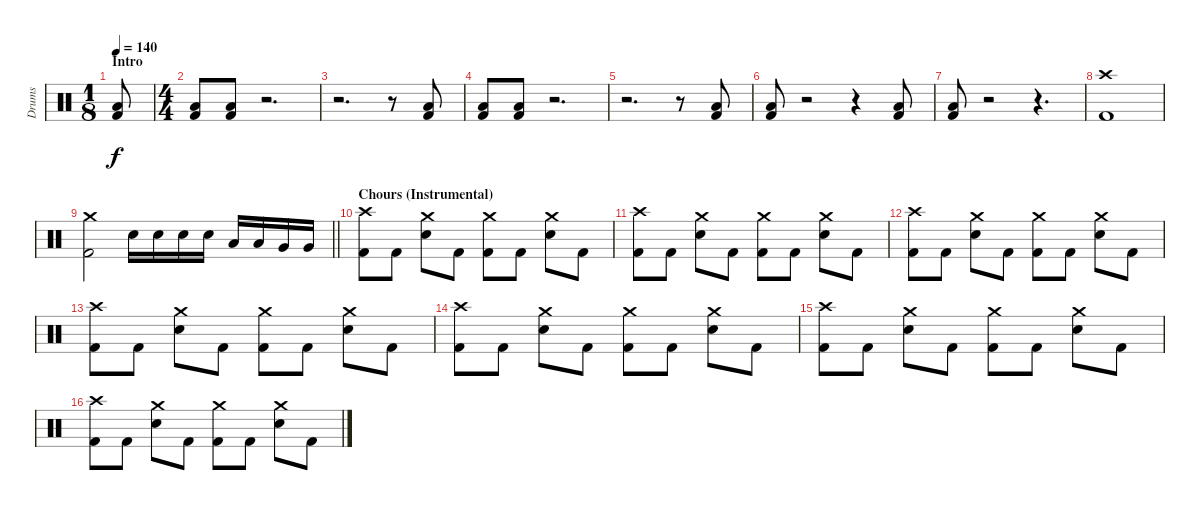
\track ("Drums" "Drums") {instrument percussion}
\staff {score}
\articulation defaults
\ts (1 8)
\section ("" "Intro")
\tempo 140
\clef neutral
\ks c
("Low Tom (hit)" "Kick (hit) 2").8{dy f} |
\ts (4 4)
("Low Tom (hit)" "Kick (hit) 2").8 ("Low Floor Tom (hit)" "Kick (hit) 2").8 r.2{d} |
r.2{d} r.8 ("Low Tom (hit)" "Kick (hit) 2").8 |
("Low Tom (hit)" "Kick (hit) 2").8 ("Low Floor Tom (hit)" "Kick (hit) 2").8 r.2{d} |
r.2{d} r.8 ("Low Tom (hit)" "Kick (hit) 2").8 |
("Low Tom (hit)" "Kick (hit) 2").8 r.2 r.4 ("Low Tom (hit)" "Kick (hit) 2").8 |
("Low Tom (hit)" "Kick (hit) 2").8 r.2 r.4{d} |
("Crash high (hit)" "Kick (hit) 2").1 |
\barLineRight lightlight
("Crash medium (hit)" "Kick (hit) 2").2 "Snare (hit) 2".16 "Snare (hit) 2".16 "Snare (hit) 2".16 "Snare (hit) 2".16 "Low Tom (hit)".16 "Low Tom (hit)".16 "Very Low Tom (hit)".16 "Very Low Tom (hit)".16 |
\section ("" "Chours (Instrumental)")
("Crash high (hit)" "Kick (hit) 2").8 "Kick (hit) 2".8 ("Crash medium (hit)" "Snare (hit) 2").8 "Kick (hit) 2".8 ("Crash medium (hit)" "Kick (hit) 2").8 "Kick (hit) 2".8 ("Crash medium (hit)" "Snare (hit) 2").8 "Kick (hit) 2".8 |
("Crash high (hit)" "Kick (hit) 2").8 "Kick (hit) 2".8 ("Crash medium (hit)" "Snare (hit) 2").8 "Kick (hit) 2".8 ("Crash medium (hit)" "Kick (hit) 2").8 "Kick (hit) 2".8 ("Crash medium (hit)" "Snare (hit) 2").8 "Kick (hit) 2".8 |
("Crash high (hit)" "Kick (hit) 2").8 "Kick (hit) 2".8 ("Crash medium (hit)" "Snare (hit) 2").8 "Kick (hit) 2".8 ("Crash medium (hit)" "Kick (hit) 2").8 "Kick (hit) 2".8 ("Crash medium (hit)" "Snare (hit) 2").8 "Kick (hit) 2".8 |
("Crash high (hit)" "Kick (hit) 2").8 "Kick (hit) 2".8 ("Crash medium (hit)" "Snare (hit) 2").8 "Kick (hit) 2".8 ("Crash medium (hit)" "Kick (hit) 2").8 "Kick (hit) 2".8 ("Crash medium (hit)" "Snare (hit) 2").8 "Kick (hit) 2".8 |
("Crash high (hit)" "Kick (hit) 2").8 "Kick (hit) 2".8 ("Crash medium (hit)" "Snare (hit) 2").8 "Kick (hit) 2".8 ("Crash medium (hit)" "Kick (hit) 2").8 "Kick (hit) 2".8 ("Crash medium (hit)" "Snare (hit) 2").8 "Kick (hit) 2".8 |
("Crash high (hit)" "Kick (hit) 2").8 "Kick (hit) 2".8 ("Crash medium (hit)" "Snare (hit) 2").8 "Kick (hit) 2".8 ("Crash medium (hit)" "Kick (hit) 2").8 "Kick (hit) 2".8 ("Crash medium (hit)" "Snare (hit) 2").8 "Kick (hit) 2".8 |
("Crash high (hit)" "Kick (hit) 2").8 "Kick (hit) 2".8 ("Crash medium (hit)" "Snare (hit) 2").8 "Kick (hit) 2".8 ("Crash medium (hit)" "Kick (hit) 2").8 "Kick (hit) 2".8 ("Crash medium (hit)" "Snare (hit) 2").8 "Kick (hit) 2".8
